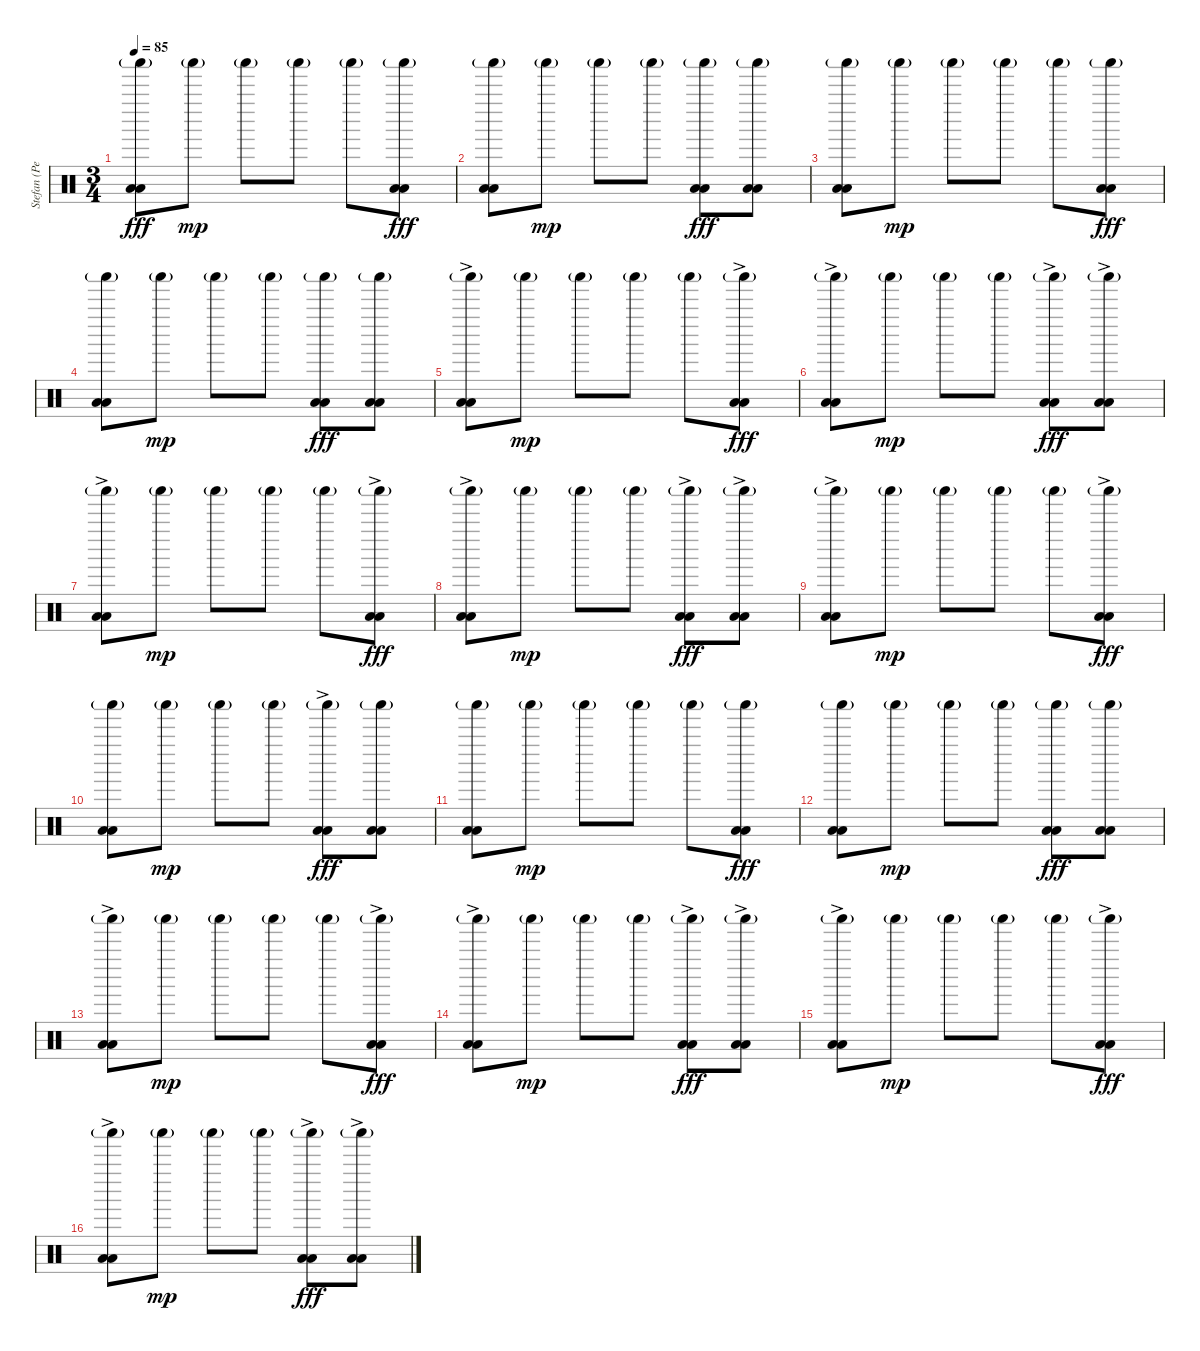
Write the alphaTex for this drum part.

\track ("Stefan (Percussion)" "Stefan (Pe") {instrument percussion}
\staff {score}
\articulation defaults
\ts (3 4)
\tempo 85
\clef neutral
\ks c
("Shaker (hit)"{g} "Low Floor Tom (hit)" "Low Floor Tom (hit)").8{dy fff} "Shaker (hit)"{g}.8{dy mp} "Shaker (hit)"{g}.8 "Shaker (hit)"{g}.8 "Shaker (hit)"{g}.8 ("Shaker (hit)"{g} "Low Floor Tom (hit)" "Low Floor Tom (hit)").8{dy fff} |
("Shaker (hit)"{g} "Low Floor Tom (hit)" "Low Floor Tom (hit)").8 "Shaker (hit)"{g}.8{dy mp} "Shaker (hit)"{g}.8 "Shaker (hit)"{g}.8 ("Shaker (hit)"{g} "Low Floor Tom (hit)" "Low Floor Tom (hit)").8{dy fff} ("Shaker (hit)"{g} "Low Floor Tom (hit)" "Low Floor Tom (hit)").8 |
("Shaker (hit)"{g} "Low Floor Tom (hit)" "Low Floor Tom (hit)").8 "Shaker (hit)"{g}.8{dy mp} "Shaker (hit)"{g}.8 "Shaker (hit)"{g}.8 "Shaker (hit)"{g}.8 ("Shaker (hit)"{g} "Low Floor Tom (hit)" "Low Floor Tom (hit)").8{dy fff} |
("Shaker (hit)"{g} "Low Floor Tom (hit)" "Low Floor Tom (hit)").8 "Shaker (hit)"{g}.8{dy mp} "Shaker (hit)"{g}.8 "Shaker (hit)"{g}.8 ("Shaker (hit)"{g} "Low Floor Tom (hit)" "Low Floor Tom (hit)").8{dy fff} ("Shaker (hit)"{g} "Low Floor Tom (hit)" "Low Floor Tom (hit)").8 |
("Shaker (hit)"{g} "Low Floor Tom (hit)"{ac} "Low Floor Tom (hit)"{ac}).8 "Shaker (hit)"{g}.8{dy mp} "Shaker (hit)"{g}.8 "Shaker (hit)"{g}.8 "Shaker (hit)"{g}.8 ("Shaker (hit)"{g} "Low Floor Tom (hit)"{ac} "Low Floor Tom (hit)"{ac}).8{dy fff} |
("Shaker (hit)"{g} "Low Floor Tom (hit)"{ac} "Low Floor Tom (hit)"{ac}).8 "Shaker (hit)"{g}.8{dy mp} "Shaker (hit)"{g}.8 "Shaker (hit)"{g}.8 ("Shaker (hit)"{g} "Low Floor Tom (hit)"{ac} "Low Floor Tom (hit)"{ac}).8{dy fff} ("Shaker (hit)"{g} "Low Floor Tom (hit)"{ac} "Low Floor Tom (hit)"{ac}).8 |
("Shaker (hit)"{g} "Low Floor Tom (hit)"{ac} "Low Floor Tom (hit)"{ac}).8 "Shaker (hit)"{g}.8{dy mp} "Shaker (hit)"{g}.8 "Shaker (hit)"{g}.8 "Shaker (hit)"{g}.8 ("Shaker (hit)"{g} "Low Floor Tom (hit)"{ac} "Low Floor Tom (hit)"{ac}).8{dy fff} |
("Shaker (hit)"{g} "Low Floor Tom (hit)"{ac} "Low Floor Tom (hit)"{ac}).8 "Shaker (hit)"{g}.8{dy mp} "Shaker (hit)"{g}.8 "Shaker (hit)"{g}.8 ("Shaker (hit)"{g} "Low Floor Tom (hit)"{ac} "Low Floor Tom (hit)"{ac}).8{dy fff} ("Shaker (hit)"{g} "Low Floor Tom (hit)"{ac} "Low Floor Tom (hit)"{ac}).8 |
("Shaker (hit)"{g} "Low Floor Tom (hit)"{ac} "Low Floor Tom (hit)"{ac}).8 "Shaker (hit)"{g}.8{dy mp} "Shaker (hit)"{g}.8 "Shaker (hit)"{g}.8 "Shaker (hit)"{g}.8 ("Shaker (hit)"{g} "Low Floor Tom (hit)"{ac} "Low Floor Tom (hit)"{ac}).8{dy fff} |
("Shaker (hit)"{g} "Low Floor Tom (hit)" "Low Floor Tom (hit)").8 "Shaker (hit)"{g}.8{dy mp} "Shaker (hit)"{g}.8 "Shaker (hit)"{g}.8 ("Shaker (hit)"{g} "Low Floor Tom (hit)"{ac} "Low Floor Tom (hit)"{ac}).8{dy fff} ("Shaker (hit)"{g} "Low Floor Tom (hit)" "Low Floor Tom (hit)").8 |
("Shaker (hit)"{g} "Low Floor Tom (hit)" "Low Floor Tom (hit)").8 "Shaker (hit)"{g}.8{dy mp} "Shaker (hit)"{g}.8 "Shaker (hit)"{g}.8 "Shaker (hit)"{g}.8 ("Shaker (hit)"{g} "Low Floor Tom (hit)" "Low Floor Tom (hit)").8{dy fff} |
("Shaker (hit)"{g} "Low Floor Tom (hit)" "Low Floor Tom (hit)").8 "Shaker (hit)"{g}.8{dy mp} "Shaker (hit)"{g}.8 "Shaker (hit)"{g}.8 ("Shaker (hit)"{g} "Low Floor Tom (hit)" "Low Floor Tom (hit)").8{dy fff} ("Shaker (hit)"{g} "Low Floor Tom (hit)" "Low Floor Tom (hit)").8 |
("Shaker (hit)"{g} "Low Floor Tom (hit)"{ac} "Low Floor Tom (hit)"{ac}).8 "Shaker (hit)"{g}.8{dy mp} "Shaker (hit)"{g}.8 "Shaker (hit)"{g}.8 "Shaker (hit)"{g}.8 ("Shaker (hit)"{g} "Low Floor Tom (hit)"{ac} "Low Floor Tom (hit)"{ac}).8{dy fff} |
("Shaker (hit)"{g} "Low Floor Tom (hit)"{ac} "Low Floor Tom (hit)"{ac}).8 "Shaker (hit)"{g}.8{dy mp} "Shaker (hit)"{g}.8 "Shaker (hit)"{g}.8 ("Shaker (hit)"{g} "Low Floor Tom (hit)"{ac} "Low Floor Tom (hit)"{ac}).8{dy fff} ("Shaker (hit)"{g} "Low Floor Tom (hit)"{ac} "Low Floor Tom (hit)"{ac}).8 |
("Shaker (hit)"{g} "Low Floor Tom (hit)"{ac} "Low Floor Tom (hit)"{ac}).8 "Shaker (hit)"{g}.8{dy mp} "Shaker (hit)"{g}.8 "Shaker (hit)"{g}.8 "Shaker (hit)"{g}.8 ("Shaker (hit)"{g} "Low Floor Tom (hit)"{ac} "Low Floor Tom (hit)"{ac}).8{dy fff} |
("Shaker (hit)"{g} "Low Floor Tom (hit)"{ac} "Low Floor Tom (hit)"{ac}).8 "Shaker (hit)"{g}.8{dy mp} "Shaker (hit)"{g}.8 "Shaker (hit)"{g}.8 ("Shaker (hit)"{g} "Low Floor Tom (hit)"{ac} "Low Floor Tom (hit)"{ac}).8{dy fff} ("Shaker (hit)"{g} "Low Floor Tom (hit)"{ac} "Low Floor Tom (hit)"{ac}).8
